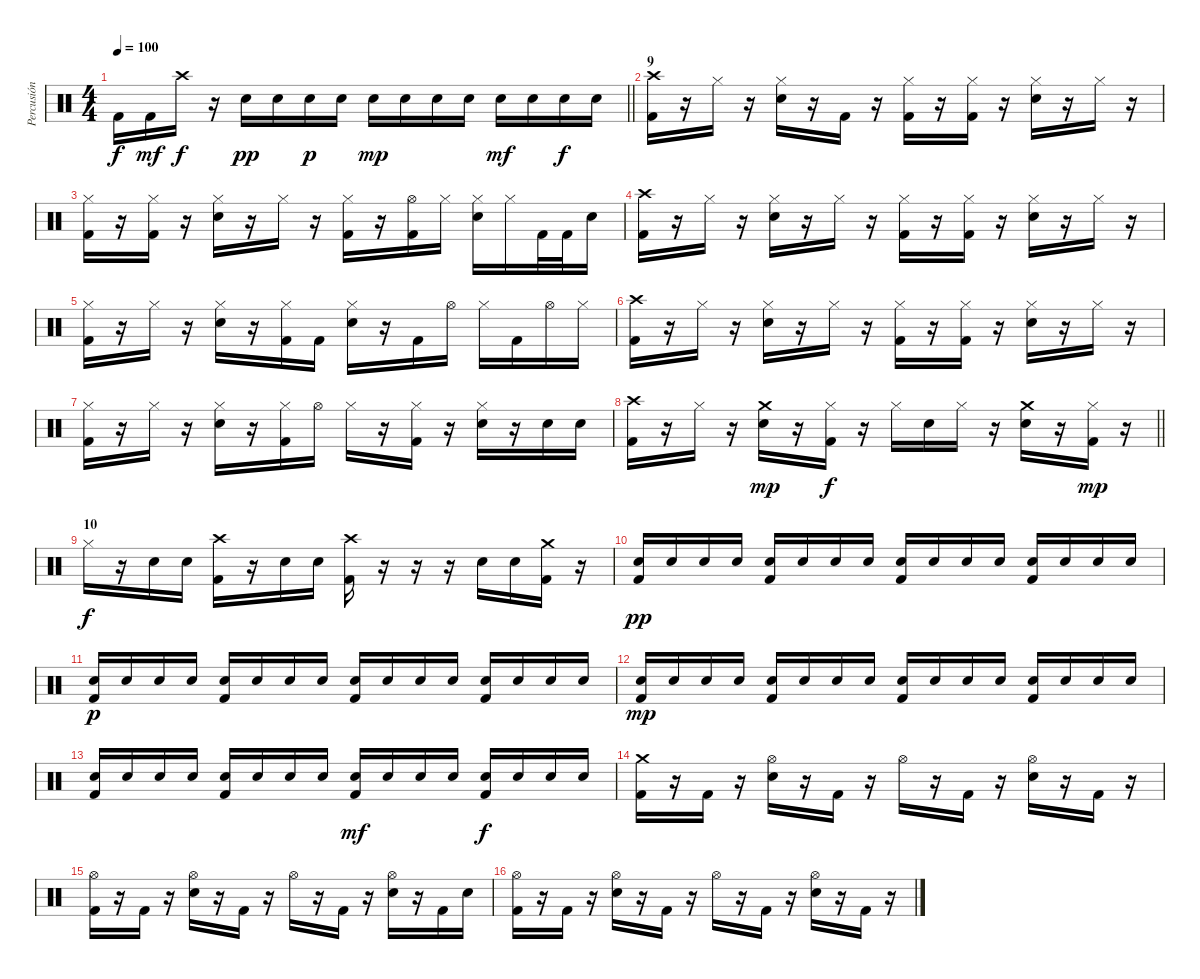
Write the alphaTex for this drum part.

\track ("Percusión" "Percusión") {instrument percussion}
\staff {score}
\articulation defaults
\ts (4 4)
\tempo 100
\clef neutral
\barLineRight lightlight
\ks c "Kick (hit) 2".16{dy f} "Kick (hit) 2".16{dy mf} "Crash high (hit)".16{dy f}
r.16 "Electric Snare (hit)".16{dy pp} "Electric Snare (hit)".16 "Electric Snare (hit)".16{dy p} "Electric Snare (hit)".16 "Electric Snare (hit)".16{dy mp} "Electric Snare (hit)".16 "Electric Snare (hit)".16 "Electric Snare (hit)".16 "Electric Snare (hit)".16{dy mf} "Electric Snare (hit)".16 "Electric Snare (hit)".16{dy f} "Electric Snare (hit)".16 |
\section ("" "9")
("Crash high (hit)" "Kick (hit) 2").16 r.16 "Hi-Hat (closed)".16 r.16 ("Hi-Hat (closed)" "Electric Snare (hit)").16 r.16 "Kick (hit) 2".16 r.16 ("Hi-Hat (closed)" "Kick (hit) 2").16 r.16 ("Hi-Hat (closed)" "Kick (hit) 2").16 r.16 ("Hi-Hat (closed)" "Electric Snare (hit)").16 r.16 "Hi-Hat (closed)".16 r.16 |
("Hi-Hat (closed)" "Kick (hit) 2").16 r.16 ("Hi-Hat (closed)" "Kick (hit) 2").16 r.16 ("Hi-Hat (closed)" "Electric Snare (hit)").16 r.16 "Hi-Hat (closed)".16 r.16 ("Hi-Hat (closed)" "Kick (hit) 2").16 r.16 ("Hi-Hat (open)" "Kick (hit) 2").16 "Hi-Hat (closed)".16 ("Hi-Hat (closed)" "Electric Snare (hit)").16 "Hi-Hat (closed)".16 "Kick (hit) 2".32 "Kick (hit) 2".32 "Electric Snare (hit)".16 |
("Crash high (hit)" "Kick (hit) 2").16 r.16 "Hi-Hat (closed)".16 r.16 ("Hi-Hat (closed)" "Electric Snare (hit)").16 r.16 "Hi-Hat (closed)".16 r.16 ("Hi-Hat (closed)" "Kick (hit) 2").16 r.16 ("Hi-Hat (closed)" "Kick (hit) 2").16 r.16 ("Hi-Hat (closed)" "Electric Snare (hit)").16 r.16 "Hi-Hat (closed)".16 r.16 |
("Hi-Hat (closed)" "Kick (hit) 2").16 r.16 "Hi-Hat (closed)".16 r.16 ("Hi-Hat (closed)" "Electric Snare (hit)").16 r.16 ("Hi-Hat (closed)" "Kick (hit) 2").16 "Kick (hit) 2".16 ("Hi-Hat (closed)" "Electric Snare (hit)").16 r.16 "Kick (hit) 2".16 "Hi-Hat (open)".16 "Hi-Hat (closed)".16 "Kick (hit) 2".16 "Hi-Hat (open)".16 "Hi-Hat (closed)".16 |
("Crash high (hit)" "Kick (hit) 2").16 r.16 "Hi-Hat (closed)".16 r.16 ("Hi-Hat (closed)" "Electric Snare (hit)").16 r.16 "Hi-Hat (closed)".16 r.16 ("Hi-Hat (closed)" "Kick (hit) 2").16 r.16 ("Hi-Hat (closed)" "Kick (hit) 2").16 r.16 ("Hi-Hat (closed)" "Electric Snare (hit)").16 r.16 "Hi-Hat (closed)".16 r.16 |
("Hi-Hat (closed)" "Kick (hit) 2").16 r.16 "Hi-Hat (closed)".16 r.16 ("Hi-Hat (closed)" "Electric Snare (hit)").16 r.16 ("Hi-Hat (closed)" "Kick (hit) 2").16 "Hi-Hat (open)".16 "Hi-Hat (closed)".16 r.16 ("Hi-Hat (closed)" "Kick (hit) 2").16 r.16 ("Hi-Hat (closed)" "Electric Snare (hit)").16 r.16 "Electric Snare (hit)".16 "Electric Snare (hit)".16 |
\barLineRight lightlight
("Crash high (hit)" "Kick (hit) 2").16 r.16 "Hi-Hat (closed)".16 r.16 ("Crash medium (hit)" "Electric Snare (hit)").16{dy mp} r.16 ("Hi-Hat (closed)" "Kick (hit) 2").16{dy f} r.16 "Hi-Hat (closed)".16 "Electric Snare (hit)".16 "Hi-Hat (closed)".16 r.16 ("Crash medium (hit)" "Electric Snare (hit)").16 r.16 ("Hi-Hat (closed)" "Kick (hit) 2").16{dy mp} r.16 |
\section ("" "10")
"Hi-Hat (closed)".16{dy f} r.16 "Electric Snare (hit)".16 "Electric Snare (hit)".16 ("Crash high (hit)" "Kick (hit) 2").16 r.16 "Electric Snare (hit)".16 "Electric Snare (hit)".16 ("Crash high (hit)" "Kick (hit) 2").16 r.16 r.16 r.16 "Electric Snare (hit)".16 "Electric Snare (hit)".16 ("Crash medium (hit)" "Kick (hit) 2").16 r.16 |
("Electric Snare (hit)" "Kick (hit) 2").16{dy pp} "Electric Snare (hit)".16 "Electric Snare (hit)".16 "Electric Snare (hit)".16 ("Electric Snare (hit)" "Kick (hit) 2").16 "Electric Snare (hit)".16 "Electric Snare (hit)".16 "Electric Snare (hit)".16 ("Electric Snare (hit)" "Kick (hit) 2").16 "Electric Snare (hit)".16 "Electric Snare (hit)".16 "Electric Snare (hit)".16 ("Electric Snare (hit)" "Kick (hit) 2").16 "Electric Snare (hit)".16 "Electric Snare (hit)".16 "Electric Snare (hit)".16 |
("Electric Snare (hit)" "Kick (hit) 2").16{dy p} "Electric Snare (hit)".16 "Electric Snare (hit)".16 "Electric Snare (hit)".16 ("Electric Snare (hit)" "Kick (hit) 2").16 "Electric Snare (hit)".16 "Electric Snare (hit)".16 "Electric Snare (hit)".16 ("Electric Snare (hit)" "Kick (hit) 2").16 "Electric Snare (hit)".16 "Electric Snare (hit)".16 "Electric Snare (hit)".16 ("Electric Snare (hit)" "Kick (hit) 2").16 "Electric Snare (hit)".16 "Electric Snare (hit)".16 "Electric Snare (hit)".16 |
("Electric Snare (hit)" "Kick (hit) 2").16{dy mp} "Electric Snare (hit)".16 "Electric Snare (hit)".16 "Electric Snare (hit)".16 ("Electric Snare (hit)" "Kick (hit) 2").16 "Electric Snare (hit)".16 "Electric Snare (hit)".16 "Electric Snare (hit)".16 ("Electric Snare (hit)" "Kick (hit) 2").16 "Electric Snare (hit)".16 "Electric Snare (hit)".16 "Electric Snare (hit)".16 ("Electric Snare (hit)" "Kick (hit) 2").16 "Electric Snare (hit)".16 "Electric Snare (hit)".16 "Electric Snare (hit)".16 |
("Electric Snare (hit)" "Kick (hit) 2").16 "Electric Snare (hit)".16 "Electric Snare (hit)".16 "Electric Snare (hit)".16 ("Electric Snare (hit)" "Kick (hit) 2").16 "Electric Snare (hit)".16 "Electric Snare (hit)".16 "Electric Snare (hit)".16 ("Electric Snare (hit)" "Kick (hit) 2").16{dy mf} "Electric Snare (hit)".16 "Electric Snare (hit)".16 "Electric Snare (hit)".16 ("Electric Snare (hit)" "Kick (hit) 2").16{dy f} "Electric Snare (hit)".16 "Electric Snare (hit)".16 "Electric Snare (hit)".16 |
("Crash medium (hit)" "Kick (hit) 2").16 r.16 "Kick (hit) 2".16 r.16 ("Hi-Hat (open)" "Electric Snare (hit)").16 r.16 "Kick (hit) 2".16 r.16 "Hi-Hat (open)".16 r.16 "Kick (hit) 2".16 r.16 ("Hi-Hat (open)" "Electric Snare (hit)").16 r.16 "Kick (hit) 2".16 r.16 |
("Hi-Hat (open)" "Kick (hit) 2").16 r.16 "Kick (hit) 2".16 r.16 ("Hi-Hat (open)" "Electric Snare (hit)").16 r.16 "Kick (hit) 2".16 r.16 "Hi-Hat (open)".16 r.16 "Kick (hit) 2".16 r.16 ("Hi-Hat (open)" "Electric Snare (hit)").16 r.16 "Kick (hit) 2".16 "Electric Snare (hit)".16 |
("Hi-Hat (open)" "Kick (hit) 2").16 r.16 "Kick (hit) 2".16 r.16 ("Hi-Hat (open)" "Electric Snare (hit)").16 r.16 "Kick (hit) 2".16 r.16 "Hi-Hat (open)".16 r.16 "Kick (hit) 2".16 r.16 ("Hi-Hat (open)" "Electric Snare (hit)").16 r.16 "Kick (hit) 2".16 r.16
